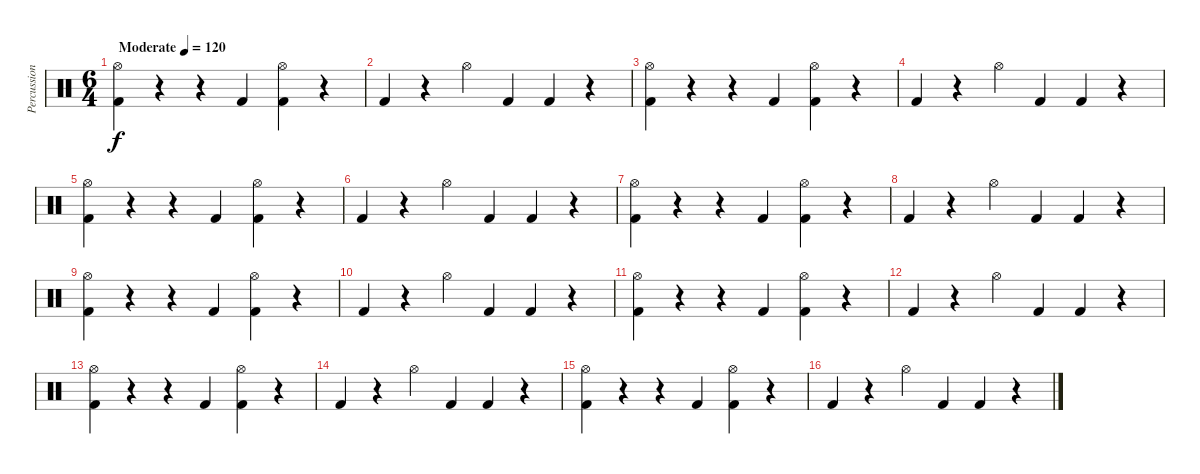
\track ("Percussions" "Percussion") {instrument percussion}
\staff {score}
\articulation defaults
\ts (6 4)
\tempo (120 "Moderate")
\clef neutral
\ks c
("Hi-Hat (open)" "Kick (hit) 2").4{dy f} r.4 r.4 "Kick (hit) 2".4 ("Hi-Hat (open)" "Kick (hit) 2").4 r.4 |
"Kick (hit) 2".4 r.4 "Hi-Hat (open)".4 "Kick (hit) 2".4 "Kick (hit) 2".4 r.4 |
("Hi-Hat (open)" "Kick (hit) 2").4 r.4 r.4 "Kick (hit) 2".4 ("Hi-Hat (open)" "Kick (hit) 2").4 r.4 |
"Kick (hit) 2".4 r.4 "Hi-Hat (open)".4 "Kick (hit) 2".4 "Kick (hit) 2".4 r.4 |
("Hi-Hat (open)" "Kick (hit) 2").4 r.4 r.4 "Kick (hit) 2".4 ("Hi-Hat (open)" "Kick (hit) 2").4 r.4 |
"Kick (hit) 2".4 r.4 "Hi-Hat (open)".4 "Kick (hit) 2".4 "Kick (hit) 2".4 r.4 |
("Hi-Hat (open)" "Kick (hit) 2").4 r.4 r.4 "Kick (hit) 2".4 ("Hi-Hat (open)" "Kick (hit) 2").4 r.4 |
"Kick (hit) 2".4 r.4 "Hi-Hat (open)".4 "Kick (hit) 2".4 "Kick (hit) 2".4 r.4 |
("Hi-Hat (open)" "Kick (hit) 2").4 r.4 r.4 "Kick (hit) 2".4 ("Hi-Hat (open)" "Kick (hit) 2").4 r.4 |
"Kick (hit) 2".4 r.4 "Hi-Hat (open)".4 "Kick (hit) 2".4 "Kick (hit) 2".4 r.4 |
("Hi-Hat (open)" "Kick (hit) 2").4 r.4 r.4 "Kick (hit) 2".4 ("Hi-Hat (open)" "Kick (hit) 2").4 r.4 |
"Kick (hit) 2".4 r.4 "Hi-Hat (open)".4 "Kick (hit) 2".4 "Kick (hit) 2".4 r.4 |
("Hi-Hat (open)" "Kick (hit) 2").4 r.4 r.4 "Kick (hit) 2".4 ("Hi-Hat (open)" "Kick (hit) 2").4 r.4 |
"Kick (hit) 2".4 r.4 "Hi-Hat (open)".4 "Kick (hit) 2".4 "Kick (hit) 2".4 r.4 |
("Hi-Hat (open)" "Kick (hit) 2").4 r.4 r.4 "Kick (hit) 2".4 ("Hi-Hat (open)" "Kick (hit) 2").4 r.4 |
"Kick (hit) 2".4 r.4 "Hi-Hat (open)".4 "Kick (hit) 2".4 "Kick (hit) 2".4 r.4
